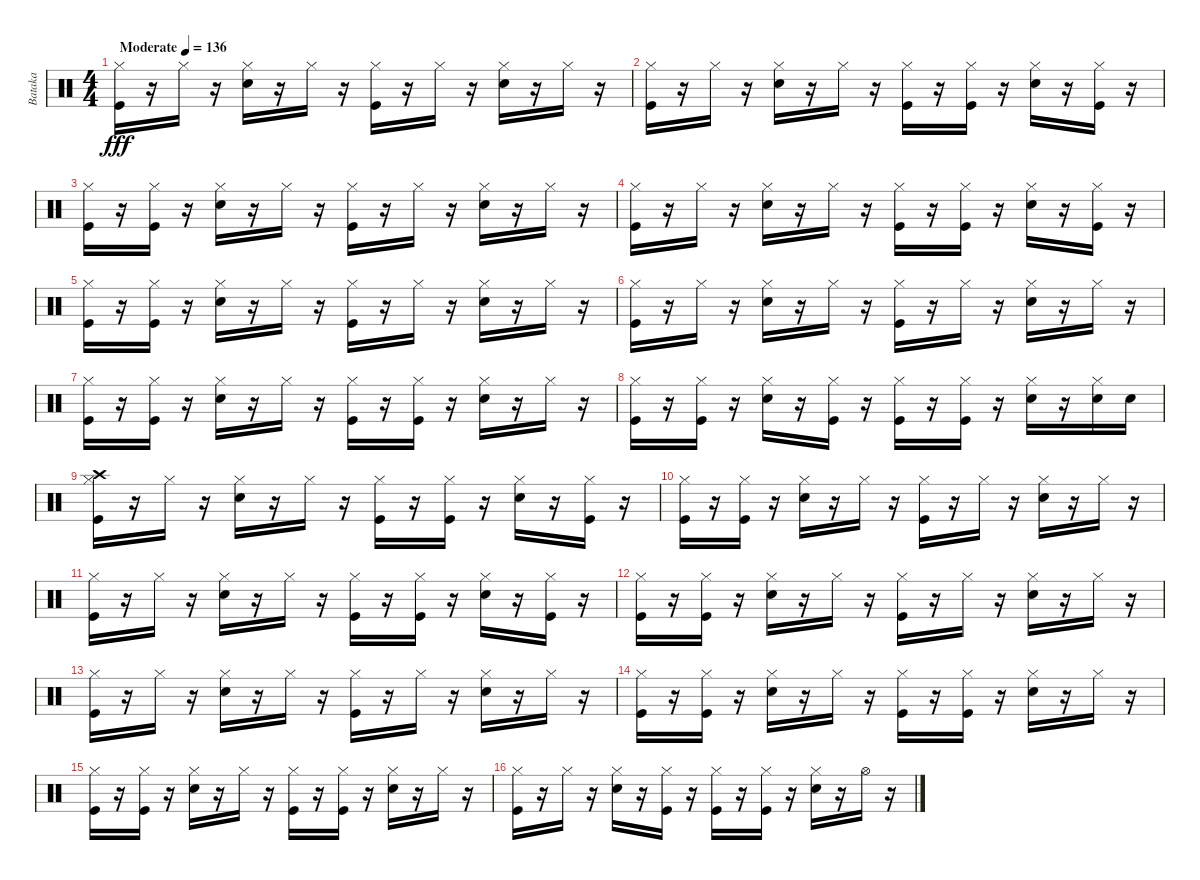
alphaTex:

\track ("Bataka" "Bataka") {instrument percussion}
\staff {score}
\articulation defaults
\ts (4 4)
\tempo (136 "Moderate")
\clef neutral
\ks c
("Kick (hit)" "Hi-Hat (closed)").16{dy fff} r.16 "Hi-Hat (closed)".16 r.16 ("Snare (hit) 2" "Hi-Hat (closed)").16 r.16 "Hi-Hat (closed)".16 r.16 ("Kick (hit)" "Hi-Hat (closed)").16 r.16 "Hi-Hat (closed)".16 r.16 ("Snare (hit) 2" "Hi-Hat (closed)").16 r.16 "Hi-Hat (closed)".16 r.16 |
("Kick (hit)" "Hi-Hat (closed)").16 r.16 "Hi-Hat (closed)".16 r.16 ("Snare (hit) 2" "Hi-Hat (closed)").16 r.16 "Hi-Hat (closed)".16 r.16 ("Kick (hit)" "Hi-Hat (closed)").16 r.16 ("Kick (hit)" "Hi-Hat (closed)").16 r.16 ("Snare (hit) 2" "Hi-Hat (closed)").16 r.16 ("Kick (hit)" "Hi-Hat (closed)").16 r.16 |
("Kick (hit)" "Hi-Hat (closed)").16 r.16 ("Kick (hit)" "Hi-Hat (closed)").16 r.16 ("Snare (hit) 2" "Hi-Hat (closed)").16 r.16 "Hi-Hat (closed)".16 r.16 ("Kick (hit)" "Hi-Hat (closed)").16 r.16 "Hi-Hat (closed)".16 r.16 ("Snare (hit) 2" "Hi-Hat (closed)").16 r.16 "Hi-Hat (closed)".16 r.16 |
("Kick (hit)" "Hi-Hat (closed)").16 r.16 "Hi-Hat (closed)".16 r.16 ("Snare (hit) 2" "Hi-Hat (closed)").16 r.16 "Hi-Hat (closed)".16 r.16 ("Kick (hit)" "Hi-Hat (closed)").16 r.16 ("Kick (hit)" "Hi-Hat (closed)").16 r.16 ("Snare (hit) 2" "Hi-Hat (closed)").16 r.16 ("Kick (hit)" "Hi-Hat (closed)").16 r.16 |
("Kick (hit)" "Hi-Hat (closed)").16 r.16 ("Kick (hit)" "Hi-Hat (closed)").16 r.16 ("Snare (hit) 2" "Hi-Hat (closed)").16 r.16 "Hi-Hat (closed)".16 r.16 ("Kick (hit)" "Hi-Hat (closed)").16 r.16 "Hi-Hat (closed)".16 r.16 ("Snare (hit) 2" "Hi-Hat (closed)").16 r.16 "Hi-Hat (closed)".16 r.16 |
("Kick (hit)" "Hi-Hat (closed)").16 r.16 "Hi-Hat (closed)".16 r.16 ("Snare (hit) 2" "Hi-Hat (closed)").16 r.16 "Hi-Hat (closed)".16 r.16 ("Kick (hit)" "Hi-Hat (closed)").16 r.16 "Hi-Hat (closed)".16 r.16 ("Snare (hit) 2" "Hi-Hat (closed)").16 r.16 "Hi-Hat (closed)".16 r.16 |
("Kick (hit)" "Hi-Hat (closed)").16 r.16 ("Kick (hit)" "Hi-Hat (closed)").16 r.16 ("Snare (hit) 2" "Hi-Hat (closed)").16 r.16 "Hi-Hat (closed)".16 r.16 ("Kick (hit)" "Hi-Hat (closed)").16 r.16 ("Kick (hit)" "Hi-Hat (closed)").16 r.16 ("Snare (hit) 2" "Hi-Hat (closed)").16 r.16 "Hi-Hat (closed)".16 r.16 |
("Kick (hit)" "Hi-Hat (closed)").16 r.16 ("Kick (hit)" "Hi-Hat (closed)").16 r.16 ("Snare (hit) 2" "Hi-Hat (closed)").16 r.16 ("Kick (hit)" "Hi-Hat (closed)").16 r.16 ("Kick (hit)" "Hi-Hat (closed)").16 r.16 ("Kick (hit)" "Hi-Hat (closed)").16 r.16 ("Snare (hit) 2" "Hi-Hat (closed)").16 r.16 ("Snare (hit) 2" "Hi-Hat (closed)").16 "Snare (hit) 2".16 |
("Kick (hit)" "Hi-Hat (closed)" "Crash high (hit)").16 r.16 "Hi-Hat (closed)".16 r.16 ("Snare (hit) 2" "Hi-Hat (closed)").16 r.16 "Hi-Hat (closed)".16 r.16 ("Kick (hit)" "Hi-Hat (closed)").16 r.16 ("Kick (hit)" "Hi-Hat (closed)").16 r.16 ("Snare (hit) 2" "Hi-Hat (closed)").16 r.16 ("Kick (hit)" "Hi-Hat (closed)").16 r.16 |
("Kick (hit)" "Hi-Hat (closed)").16 r.16 ("Kick (hit)" "Hi-Hat (closed)").16 r.16 ("Snare (hit) 2" "Hi-Hat (closed)").16 r.16 "Hi-Hat (closed)".16 r.16 ("Kick (hit)" "Hi-Hat (closed)").16 r.16 "Hi-Hat (closed)".16 r.16 ("Snare (hit) 2" "Hi-Hat (closed)").16 r.16 "Hi-Hat (closed)".16 r.16 |
("Kick (hit)" "Hi-Hat (closed)").16 r.16 "Hi-Hat (closed)".16 r.16 ("Snare (hit) 2" "Hi-Hat (closed)").16 r.16 "Hi-Hat (closed)".16 r.16 ("Kick (hit)" "Hi-Hat (closed)").16 r.16 ("Kick (hit)" "Hi-Hat (closed)").16 r.16 ("Snare (hit) 2" "Hi-Hat (closed)").16 r.16 ("Kick (hit)" "Hi-Hat (closed)").16 r.16 |
("Kick (hit)" "Hi-Hat (closed)").16 r.16 ("Kick (hit)" "Hi-Hat (closed)").16 r.16 ("Snare (hit) 2" "Hi-Hat (closed)").16 r.16 "Hi-Hat (closed)".16 r.16 ("Kick (hit)" "Hi-Hat (closed)").16 r.16 "Hi-Hat (closed)".16 r.16 ("Snare (hit) 2" "Hi-Hat (closed)").16 r.16 "Hi-Hat (closed)".16 r.16 |
("Kick (hit)" "Hi-Hat (closed)").16 r.16 "Hi-Hat (closed)".16 r.16 ("Snare (hit) 2" "Hi-Hat (closed)").16 r.16 "Hi-Hat (closed)".16 r.16 ("Kick (hit)" "Hi-Hat (closed)").16 r.16 "Hi-Hat (closed)".16 r.16 ("Snare (hit) 2" "Hi-Hat (closed)").16 r.16 "Hi-Hat (closed)".16 r.16 |
("Kick (hit)" "Hi-Hat (closed)").16 r.16 ("Kick (hit)" "Hi-Hat (closed)").16 r.16 ("Snare (hit) 2" "Hi-Hat (closed)").16 r.16 "Hi-Hat (closed)".16 r.16 ("Kick (hit)" "Hi-Hat (closed)").16 r.16 ("Kick (hit)" "Hi-Hat (closed)").16 r.16 ("Snare (hit) 2" "Hi-Hat (closed)").16 r.16 "Hi-Hat (closed)".16 r.16 |
("Kick (hit)" "Hi-Hat (closed)").16 r.16 ("Kick (hit)" "Hi-Hat (closed)").16 r.16 ("Snare (hit) 2" "Hi-Hat (closed)").16 r.16 "Hi-Hat (closed)".16 r.16 ("Kick (hit)" "Hi-Hat (closed)").16 r.16 ("Kick (hit)" "Hi-Hat (closed)").16 r.16 ("Snare (hit) 2" "Hi-Hat (closed)").16 r.16 "Hi-Hat (closed)".16 r.16 |
("Kick (hit)" "Hi-Hat (closed)").16 r.16 "Hi-Hat (closed)".16 r.16 ("Snare (hit) 2" "Hi-Hat (closed)").16 r.16 ("Kick (hit)" "Hi-Hat (closed)").16 r.16 ("Kick (hit)" "Hi-Hat (closed)").16 r.16 ("Kick (hit)" "Hi-Hat (closed)").16 r.16 ("Snare (hit) 2" "Hi-Hat (closed)").16 r.16 "Hi-Hat (open)".16 r.16
